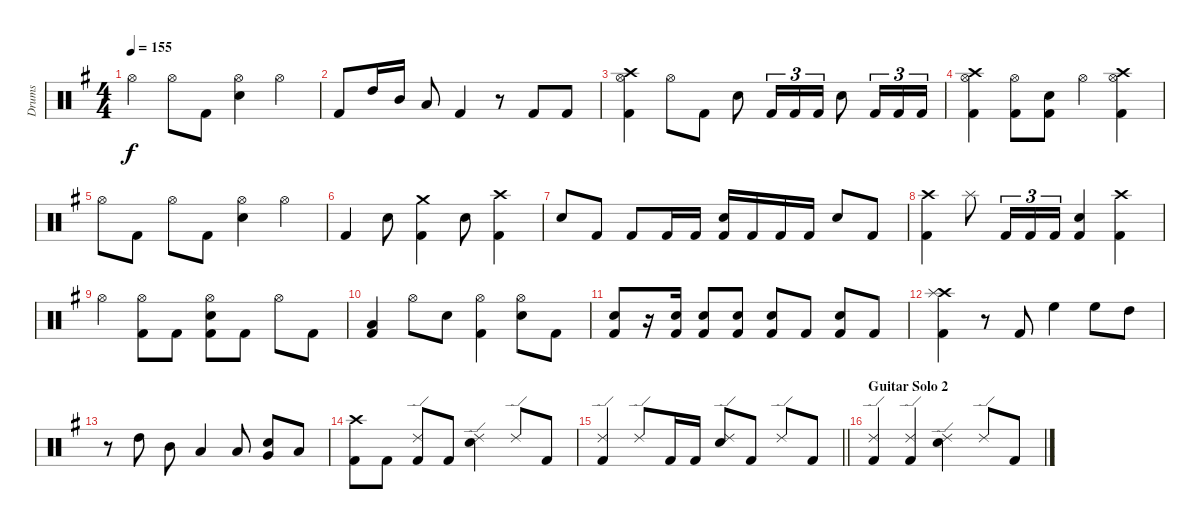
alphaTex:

\track ("Drums" "Drums") {instrument percussion}
\staff {score}
\articulation defaults
\ts (4 4)
\tempo 155
\clef neutral
\ks g "Hi-Hat (open)".4{dy f} "Hi-Hat (open)".8 "Kick (hit) 2".8
("Hi-Hat (open)" "Snare (hit) 2").4 "Hi-Hat (open)".4 |
"Kick (hit) 2".8 "High Tom (hit)".16 "Mid Tom (hit)".16 "Low Tom (hit)".8 "Kick (hit) 2".4 r.8 "Kick (hit) 2".8 "Kick (hit) 2".8 |
("Crash high (hit)" "Hi-Hat (open)" "Kick (hit) 2").4 "Hi-Hat (open)".8 "Kick (hit) 2".8 "Snare (hit) 2".8 "Kick (hit) 2".16{tu (3 2)} "Kick (hit) 2".16{tu (3 2)} "Kick (hit) 2".16{tu (3 2)} "Snare (hit) 2".8 "Kick (hit) 2".16{tu (3 2)} "Kick (hit) 2".16{tu (3 2)} "Kick (hit) 2".16{tu (3 2)} |
("Crash high (hit)" "Hi-Hat (open)" "Kick (hit) 2").4 ("Hi-Hat (open)" "Kick (hit) 2").8 ("Snare (hit) 2" "Kick (hit) 2").8 "Hi-Hat (open)".4 ("Crash high (hit)" "Hi-Hat (open)" "Kick (hit) 2").4 |
"Hi-Hat (open)".8 "Kick (hit) 2".8 "Hi-Hat (open)".8 "Kick (hit) 2".8 ("Hi-Hat (open)" "Snare (hit) 2").4 "Hi-Hat (open)".4 |
"Kick (hit) 2".4 "Snare (hit) 2".8 ("Crash medium (hit)" "Kick (hit) 2").4 "Snare (hit) 2".8 ("Crash high (hit)" "Kick (hit) 2").4 |
"Snare (hit) 2".8 "Kick (hit) 2".8 "Kick (hit) 2".8 "Kick (hit) 2".16 "Kick (hit) 2".16 ("Snare (hit) 2" "Kick (hit) 2").16 "Kick (hit) 2".16 "Kick (hit) 2".16 "Kick (hit) 2".16 "Snare (hit) 2".8 "Kick (hit) 2".8 |
("Crash high (hit)" "Kick (hit) 2").4 "Splash (hit)".8 "Kick (hit) 2".16{tu (3 2)} "Kick (hit) 2".16{tu (3 2)} "Kick (hit) 2".16{tu (3 2)} ("Snare (hit) 2" "Kick (hit) 2").4 ("Crash high (hit)" "Kick (hit) 2").4 |
"Hi-Hat (open)".4 ("Hi-Hat (open)" "Kick (hit) 2").8 "Kick (hit) 2".8 ("Hi-Hat (open)" "Snare (hit) 2" "Kick (hit) 2").8 "Kick (hit) 2".8 "Hi-Hat (open)".8 "Kick (hit) 2".8 |
("Low Floor Tom (hit)" "Kick (hit) 2").4 "Hi-Hat (open)".8 "Snare (hit) 2".8 ("Hi-Hat (open)" "Kick (hit) 2").4 ("Hi-Hat (open)" "Snare (hit) 2").8 "Kick (hit) 2".8 |
("Snare (hit) 2" "Kick (hit) 2").8 r.16 ("Snare (hit) 2" "Kick (hit) 2").16 ("Snare (hit) 2" "Kick (hit) 2").8 ("Snare (hit) 2" "Kick (hit) 2").8 ("Snare (hit) 2" "Kick (hit) 2").8 "Kick (hit) 2".8 ("Snare (hit) 2" "Kick (hit) 2").8 "Kick (hit) 2".8 |
("Crash high (hit)" "Splash (hit)" "Kick (hit) 2").4 r.8 "Kick (hit) 2".8 "High Floor Tom (hit)".4 "High Floor Tom (hit)".8 "High Tom (hit)".8 |
r.8 "High Tom (hit)".8 "Mid Tom (hit)".8 "Low Tom (hit)".4 "Low Tom (hit)".8 ("Snare (hit) 2" "Very Low Tom (hit)").8 "Low Floor Tom (hit)".8 |
("Crash high (hit)" "Kick (hit) 2").8 "Kick (hit) 2".8 ("Ride (edge) 2" "Kick (hit) 2").8 "Kick (hit) 2".8 ("Ride (edge) 2" "Snare (hit) 2").4 "Ride (edge) 2".8 "Kick (hit) 2".8 |
\barLineRight lightlight
("Ride (edge) 2" "Kick (hit) 2").4 "Ride (edge) 2".8 "Kick (hit) 2".16 "Kick (hit) 2".16 ("Ride (edge) 2" "Snare (hit) 2").8 "Kick (hit) 2".8 "Ride (edge) 2".8 "Kick (hit) 2".8 |
\section ("" "Guitar Solo 2")
("Ride (edge) 2" "Kick (hit) 2").4 ("Ride (edge) 2" "Kick (hit) 2").4 ("Ride (edge) 2" "Snare (hit) 2").4 "Ride (edge) 2".8 "Kick (hit) 2".8
